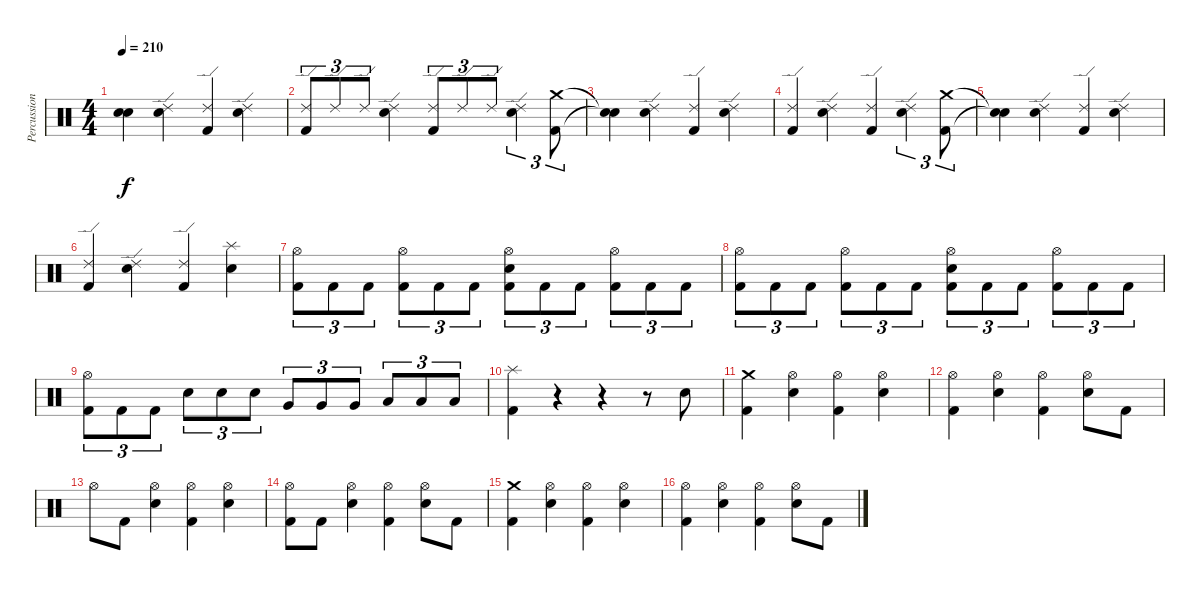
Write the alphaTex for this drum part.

\track ("Percussions" "Percussion") {instrument percussion}
\staff {score}
\articulation defaults
\ts (4 4)
\tempo 210
\clef neutral
\ks c
("Snare (hit)"{t} "Snare (hit)"{t}).4{dy f} ("Ride (edge) 2" "Snare (hit) 2").4 ("Ride (edge) 2" "Kick (hit) 2").4 ("Ride (edge) 2" "Snare (hit) 2").4 |
("Ride (edge) 2" "Kick (hit) 2").8{tu (3 2)} "Ride (edge) 2".8{tu (3 2)} "Ride (edge) 2".8{tu (3 2)} ("Ride (edge) 2" "Snare (hit) 2").4 ("Ride (edge) 2" "Kick (hit) 2").8{tu (3 2)} "Ride (edge) 2".8{tu (3 2)} "Ride (edge) 2".8{tu (3 2)} ("Ride (edge) 2" "Snare (hit) 2").4{tu (3 2)} ("Crash medium (hit)" "Kick (hit) 2").8{tu (3 2)} |
("Snare (hit)"{t} "Snare (hit)"{t}).4 ("Ride (edge) 2" "Snare (hit) 2").4 ("Ride (edge) 2" "Kick (hit) 2").4 ("Ride (edge) 2" "Snare (hit) 2").4 |
("Ride (edge) 2" "Kick (hit) 2").4 ("Ride (edge) 2" "Snare (hit) 2").4 ("Ride (edge) 2" "Kick (hit) 2").4 ("Ride (edge) 2" "Snare (hit) 2").4{tu (3 2)} ("Crash medium (hit)" "Kick (hit) 2").8{tu (3 2)} |
("Snare (hit)"{t} "Snare (hit)"{t}).4 ("Ride (edge) 2" "Snare (hit) 2").4 ("Ride (edge) 2" "Kick (hit) 2").4 ("Ride (edge) 2" "Snare (hit) 2").4 |
("Ride (edge) 2" "Kick (hit) 2").4 ("Ride (edge) 2" "Snare (hit) 2").4 ("Ride (edge) 2" "Kick (hit) 2").4 ("Splash (hit)" "Snare (hit) 2").4 |
("Hi-Hat (open)" "Kick (hit) 2").8{tu (3 2)} "Kick (hit) 2".8{tu (3 2)} "Kick (hit) 2".8{tu (3 2)} ("Hi-Hat (open)" "Kick (hit) 2").8{tu (3 2)} "Kick (hit) 2".8{tu (3 2)} "Kick (hit) 2".8{tu (3 2)} ("Hi-Hat (open)" "Snare (hit) 2" "Kick (hit) 2").8{tu (3 2)} "Kick (hit) 2".8{tu (3 2)} "Kick (hit) 2".8{tu (3 2)} ("Hi-Hat (open)" "Kick (hit) 2").8{tu (3 2)} "Kick (hit) 2".8{tu (3 2)} "Kick (hit) 2".8{tu (3 2)} |
("Hi-Hat (open)" "Kick (hit) 2").8{tu (3 2)} "Kick (hit) 2".8{tu (3 2)} "Kick (hit) 2".8{tu (3 2)} ("Hi-Hat (open)" "Kick (hit) 2").8{tu (3 2)} "Kick (hit) 2".8{tu (3 2)} "Kick (hit) 2".8{tu (3 2)} ("Hi-Hat (open)" "Snare (hit) 2" "Kick (hit) 2").8{tu (3 2)} "Kick (hit) 2".8{tu (3 2)} "Kick (hit) 2".8{tu (3 2)} ("Hi-Hat (open)" "Kick (hit) 2").8{tu (3 2)} "Kick (hit) 2".8{tu (3 2)} "Kick (hit) 2".8{tu (3 2)} |
("Hi-Hat (open)" "Kick (hit) 2").8{tu (3 2)} "Kick (hit) 2".8{tu (3 2)} "Kick (hit) 2".8{tu (3 2)} "Snare (hit) 2".8{tu (3 2)} "Snare (hit) 2".8{tu (3 2)} "Snare (hit) 2".8{tu (3 2)} "Very Low Tom (hit)".8{tu (3 2)} "Very Low Tom (hit)".8{tu (3 2)} "Very Low Tom (hit)".8{tu (3 2)} "Low Floor Tom (hit)".8{tu (3 2)} "Low Floor Tom (hit)".8{tu (3 2)} "Low Floor Tom (hit)".8{tu (3 2)} |
("Splash (hit)" "Kick (hit) 2").4 r.4 r.4 r.8 "Snare (hit) 2".8 |
("Crash medium (hit)" "Kick (hit) 2").4 ("Hi-Hat (open)" "Snare (hit) 2").4 ("Hi-Hat (open)" "Kick (hit) 2").4 ("Hi-Hat (open)" "Snare (hit) 2").4 |
("Hi-Hat (open)" "Kick (hit) 2").4 ("Hi-Hat (open)" "Snare (hit) 2").4 ("Hi-Hat (open)" "Kick (hit) 2").4 ("Hi-Hat (open)" "Snare (hit) 2").8 "Kick (hit) 2".8 |
"Hi-Hat (open)".8 "Kick (hit) 2".8 ("Hi-Hat (open)" "Snare (hit) 2").4 ("Hi-Hat (open)" "Kick (hit) 2").4 ("Hi-Hat (open)" "Snare (hit) 2").4 |
("Hi-Hat (open)" "Kick (hit) 2").8 "Kick (hit) 2".8 ("Hi-Hat (open)" "Snare (hit) 2").4 ("Hi-Hat (open)" "Kick (hit) 2").4 ("Hi-Hat (open)" "Snare (hit) 2").8 "Kick (hit) 2".8 |
("Crash medium (hit)" "Kick (hit) 2").4 ("Hi-Hat (open)" "Snare (hit) 2").4 ("Hi-Hat (open)" "Kick (hit) 2").4 ("Hi-Hat (open)" "Snare (hit) 2").4 |
("Hi-Hat (open)" "Kick (hit) 2").4 ("Hi-Hat (open)" "Snare (hit) 2").4 ("Hi-Hat (open)" "Kick (hit) 2").4 ("Hi-Hat (open)" "Snare (hit) 2").8 "Kick (hit) 2".8
